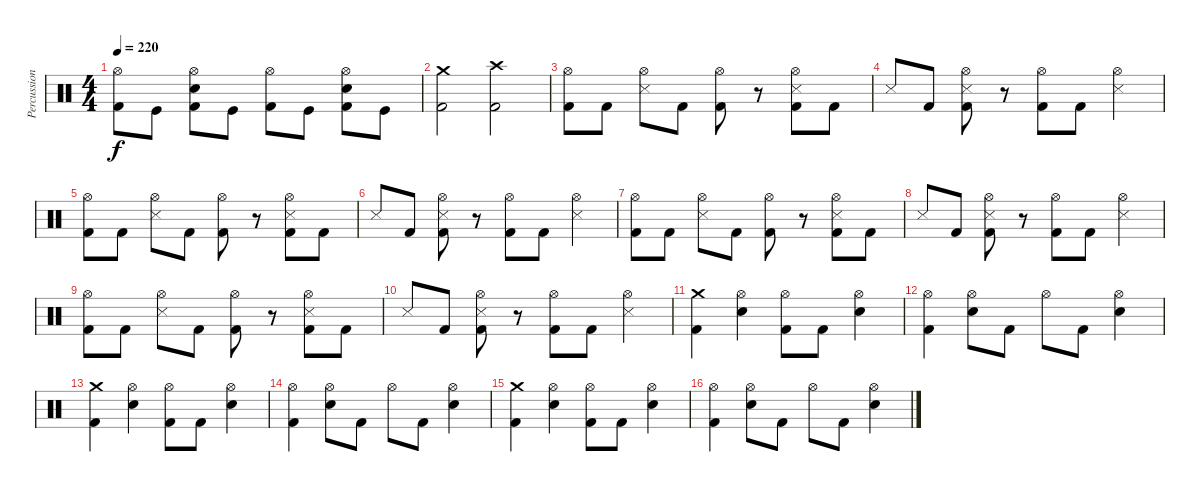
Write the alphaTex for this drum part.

\track ("Percussions" "Percussion") {instrument percussion}
\staff {score}
\articulation defaults
\ts (4 4)
\tempo 220
\clef neutral
\ks c
("Hi-Hat (open)" "Kick (hit) 2").8{dy f} "Kick (hit)".8 ("Hi-Hat (open)" "Electric Snare (hit)" "Kick (hit) 2").8 "Kick (hit)".8 ("Hi-Hat (open)" "Kick (hit) 2").8 "Kick (hit)".8 ("Hi-Hat (open)" "Electric Snare (hit)" "Kick (hit) 2").8 "Kick (hit)".8 |
("Crash medium (hit)" "Kick (hit) 2").2 ("Crash high (hit)" "Kick (hit) 2").2 |
("Hi-Hat (open)" "Kick (hit) 2").8 "Kick (hit) 2".8 ("Hi-Hat (open)" "Snare (side stick) 3").8 "Kick (hit) 2".8 ("Hi-Hat (open)" "Kick (hit) 2").8 r.8 ("Hi-Hat (open)" "Snare (side stick) 3" "Kick (hit) 2").8 "Kick (hit) 2".8 |
"Snare (side stick) 3".8 "Kick (hit) 2".8 ("Hi-Hat (open)" "Snare (side stick) 3" "Kick (hit) 2").8 r.8 ("Hi-Hat (open)" "Kick (hit) 2").8 "Kick (hit) 2".8 ("Hi-Hat (open)" "Snare (side stick) 3").4 |
("Hi-Hat (open)" "Kick (hit) 2").8 "Kick (hit) 2".8 ("Hi-Hat (open)" "Snare (side stick) 3").8 "Kick (hit) 2".8 ("Hi-Hat (open)" "Kick (hit) 2").8 r.8 ("Hi-Hat (open)" "Snare (side stick) 3" "Kick (hit) 2").8 "Kick (hit) 2".8 |
"Snare (side stick) 3".8 "Kick (hit) 2".8 ("Hi-Hat (open)" "Snare (side stick) 3" "Kick (hit) 2").8 r.8 ("Hi-Hat (open)" "Kick (hit) 2").8 "Kick (hit) 2".8 ("Hi-Hat (open)" "Snare (side stick) 3").4 |
("Hi-Hat (open)" "Kick (hit) 2").8 "Kick (hit) 2".8 ("Hi-Hat (open)" "Snare (side stick) 3").8 "Kick (hit) 2".8 ("Hi-Hat (open)" "Kick (hit) 2").8 r.8 ("Hi-Hat (open)" "Snare (side stick) 3" "Kick (hit) 2").8 "Kick (hit) 2".8 |
"Snare (side stick) 3".8 "Kick (hit) 2".8 ("Hi-Hat (open)" "Snare (side stick) 3" "Kick (hit) 2").8 r.8 ("Hi-Hat (open)" "Kick (hit) 2").8 "Kick (hit) 2".8 ("Hi-Hat (open)" "Snare (side stick) 3").4 |
("Hi-Hat (open)" "Kick (hit) 2").8 "Kick (hit) 2".8 ("Hi-Hat (open)" "Snare (side stick) 3").8 "Kick (hit) 2".8 ("Hi-Hat (open)" "Kick (hit) 2").8 r.8 ("Hi-Hat (open)" "Snare (side stick) 3" "Kick (hit) 2").8 "Kick (hit) 2".8 |
"Snare (side stick) 3".8 "Kick (hit) 2".8 ("Hi-Hat (open)" "Snare (side stick) 3" "Kick (hit) 2").8 r.8 ("Hi-Hat (open)" "Kick (hit) 2").8 "Kick (hit) 2".8 ("Hi-Hat (open)" "Snare (side stick) 3").4 |
("Crash medium (hit)" "Kick (hit) 2").4 ("Hi-Hat (open)" "Electric Snare (hit)").4 ("Hi-Hat (open)" "Kick (hit) 2").8 "Kick (hit) 2".8 ("Hi-Hat (open)" "Electric Snare (hit)").4 |
("Hi-Hat (open)" "Kick (hit) 2").4 ("Hi-Hat (open)" "Electric Snare (hit)").8 "Kick (hit) 2".8 "Hi-Hat (open)".8 "Kick (hit) 2".8 ("Hi-Hat (open)" "Electric Snare (hit)").4 |
("Crash medium (hit)" "Kick (hit) 2").4 ("Hi-Hat (open)" "Electric Snare (hit)").4 ("Hi-Hat (open)" "Kick (hit) 2").8 "Kick (hit) 2".8 ("Hi-Hat (open)" "Electric Snare (hit)").4 |
("Hi-Hat (open)" "Kick (hit) 2").4 ("Hi-Hat (open)" "Electric Snare (hit)").8 "Kick (hit) 2".8 "Hi-Hat (open)".8 "Kick (hit) 2".8 ("Hi-Hat (open)" "Electric Snare (hit)").4 |
("Crash medium (hit)" "Kick (hit) 2").4 ("Hi-Hat (open)" "Electric Snare (hit)").4 ("Hi-Hat (open)" "Kick (hit) 2").8 "Kick (hit) 2".8 ("Hi-Hat (open)" "Electric Snare (hit)").4 |
("Hi-Hat (open)" "Kick (hit) 2").4 ("Hi-Hat (open)" "Electric Snare (hit)").8 "Kick (hit) 2".8 "Hi-Hat (open)".8 "Kick (hit) 2".8 ("Hi-Hat (open)" "Electric Snare (hit)").4
